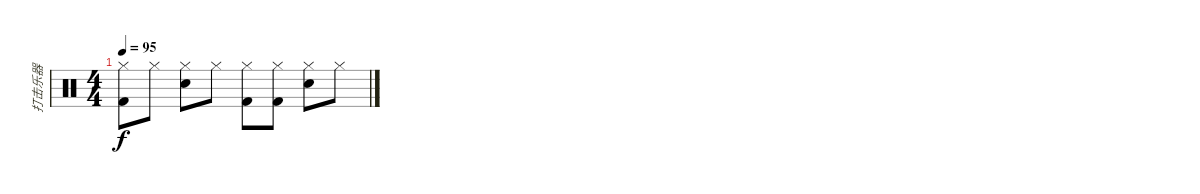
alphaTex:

\track ("打击乐器" "打击乐器") {instrument percussion}
\staff {score}
\articulation defaults
\ts (4 4)
\tempo 95
\clef neutral
\ks c
("Hi-Hat (closed)" "Kick (hit) 2").8{dy f} "Hi-Hat (closed)".8 ("Hi-Hat (closed)" "Electric Snare (hit)").8 "Hi-Hat (closed)".8 ("Hi-Hat (closed)" "Kick (hit) 2").8 ("Hi-Hat (closed)" "Kick (hit) 2").8 ("Hi-Hat (closed)" "Electric Snare (hit)").8 "Hi-Hat (closed)".8
